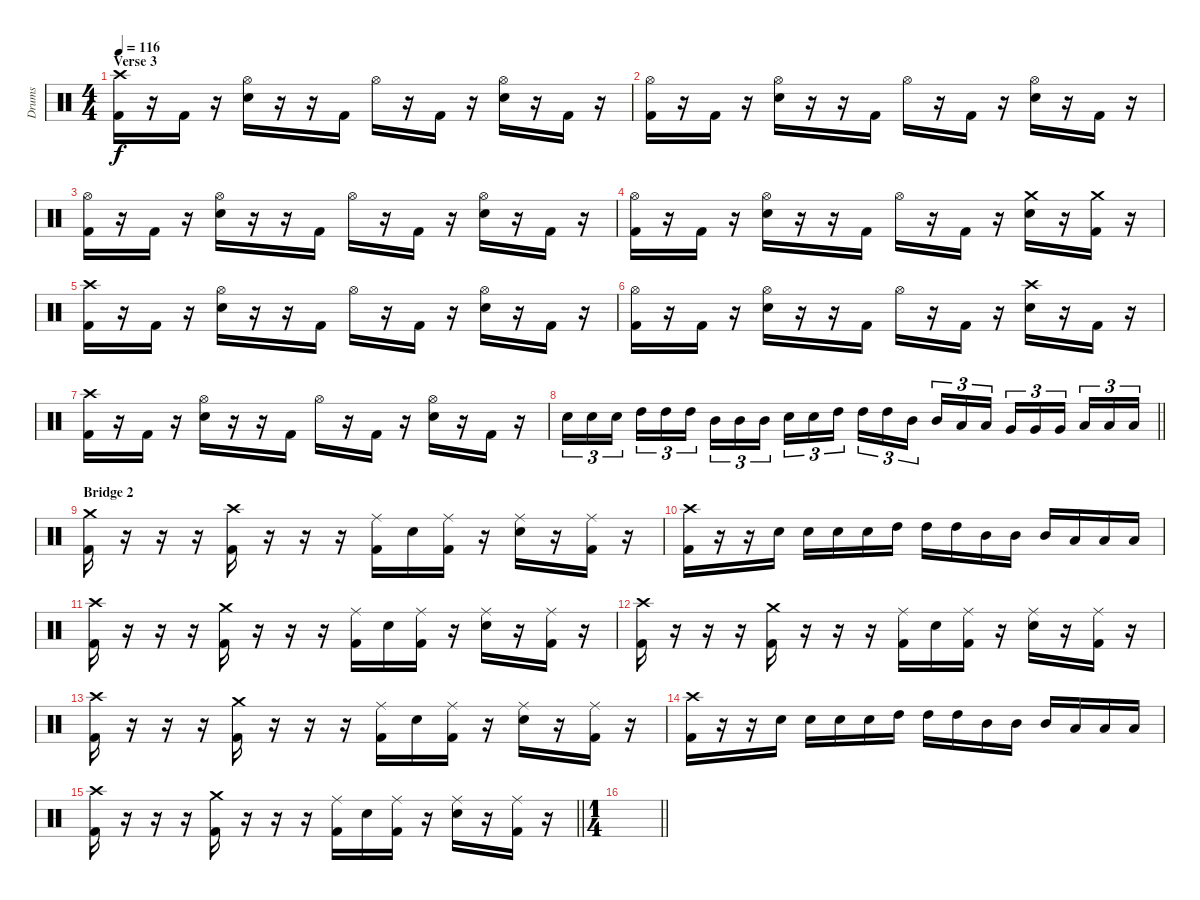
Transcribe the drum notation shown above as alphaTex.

\track ("Drums" "Drums") {instrument percussion}
\staff {score}
\articulation defaults
\ts (4 4)
\section ("" "Verse 3")
\tempo 116
\clef neutral
\ks c
("Crash high (hit)" "Kick (hit) 2").16{dy f} r.16 "Kick (hit) 2".16 r.16 ("Hi-Hat (open)" "Snare (hit) 2").16 r.16 r.16 "Kick (hit) 2".16 "Hi-Hat (open)".16 r.16 "Kick (hit) 2".16 r.16 ("Hi-Hat (open)" "Snare (hit) 2").16 r.16 "Kick (hit) 2".16 r.16 |
("Hi-Hat (open)" "Kick (hit) 2").16 r.16 "Kick (hit) 2".16 r.16 ("Hi-Hat (open)" "Snare (hit) 2").16 r.16 r.16 "Kick (hit) 2".16 "Hi-Hat (open)".16 r.16 "Kick (hit) 2".16 r.16 ("Hi-Hat (open)" "Snare (hit) 2").16 r.16 "Kick (hit) 2".16 r.16 |
("Hi-Hat (open)" "Kick (hit) 2").16 r.16 "Kick (hit) 2".16 r.16 ("Hi-Hat (open)" "Snare (hit) 2").16 r.16 r.16 "Kick (hit) 2".16 "Hi-Hat (open)".16 r.16 "Kick (hit) 2".16 r.16 ("Hi-Hat (open)" "Snare (hit) 2").16 r.16 "Kick (hit) 2".16 r.16 |
("Hi-Hat (open)" "Kick (hit) 2").16 r.16 "Kick (hit) 2".16 r.16 ("Hi-Hat (open)" "Snare (hit) 2").16 r.16 r.16 "Kick (hit) 2".16 "Hi-Hat (open)".16 r.16 "Kick (hit) 2".16 r.16 ("Crash medium (hit)" "Snare (hit) 2").16 r.16 ("Crash medium (hit)" "Kick (hit) 2").16 r.16 |
("Crash high (hit)" "Kick (hit) 2").16 r.16 "Kick (hit) 2".16 r.16 ("Hi-Hat (open)" "Snare (hit) 2").16 r.16 r.16 "Kick (hit) 2".16 "Hi-Hat (open)".16 r.16 "Kick (hit) 2".16 r.16 ("Hi-Hat (open)" "Snare (hit) 2").16 r.16 "Kick (hit) 2".16 r.16 |
("Hi-Hat (open)" "Kick (hit) 2").16 r.16 "Kick (hit) 2".16 r.16 ("Hi-Hat (open)" "Snare (hit) 2").16 r.16 r.16 "Kick (hit) 2".16 "Hi-Hat (open)".16 r.16 "Kick (hit) 2".16 r.16 ("Crash high (hit)" "Snare (hit) 2").16 r.16 "Kick (hit) 2".16 r.16 |
("Crash high (hit)" "Kick (hit) 2").16 r.16 "Kick (hit) 2".16 r.16 ("Hi-Hat (open)" "Snare (hit) 2").16 r.16 r.16 "Kick (hit) 2".16 "Hi-Hat (open)".16 r.16 "Kick (hit) 2".16 r.16 ("Hi-Hat (open)" "Snare (hit) 2").16 r.16 "Kick (hit) 2".16 r.16 |
\barLineRight lightlight "Snare (hit) 2".16{tu (3 2)} "Snare (hit) 2".16{tu (3 2)} "Snare (hit) 2".16{tu (3 2) beam splitsecondary} "High Tom (hit)".16{tu (3 2)} "High Tom (hit)".16{tu (3 2)} "High Tom (hit)".16{tu (3 2)} "Mid Tom (hit)".16{tu (3 2)} "Mid Tom (hit)".16{tu (3 2)} "Mid Tom (hit)".16{tu (3 2) beam splitsecondary} "Snare (hit) 2".16{tu (3 2)} "Snare (hit) 2".16{tu (3 2)} "High Tom (hit)".16{tu (3 2)} "High Tom (hit)".16{tu (3 2)} "High Tom (hit)".16{tu (3 2)} "Mid Tom (hit)".16{tu (3 2) beam splitsecondary} "Mid Tom (hit)".16{tu (3 2)} "Low Tom (hit)".16{tu (3 2)} "Low Tom (hit)".16{tu (3 2)} "Very Low Tom (hit)".16{tu (3 2)} "Very Low Tom (hit)".16{tu (3 2)} "Very Low Tom (hit)".16{tu (3 2) beam splitsecondary} "Low Floor Tom (hit)".16{tu (3 2)} "Low Floor Tom (hit)".16{tu (3 2)} "Low Floor Tom (hit)".16{tu (3 2)}
|
\section ("" "Bridge 2")
("Crash medium (hit)" "Kick (hit) 2").16 r.16 r.16 r.16 ("Crash high (hit)" "Kick (hit) 2").16 r.16 r.16 r.16 ("Ride (middle)" "Kick (hit) 2").16 "Snare (hit) 2".16 ("Ride (middle)" "Kick (hit) 2").16 r.16 ("Ride (middle)" "Snare (hit) 2").16 r.16 ("Ride (middle)" "Kick (hit) 2").16 r.16 |
("Crash high (hit)" "Kick (hit) 2").16 r.16 r.16 "Snare (hit) 2".16 "Snare (hit) 2".16 "Snare (hit) 2".16 "Snare (hit) 2".16 "High Tom (hit)".16 "High Tom (hit)".16 "High Tom (hit)".16 "Mid Tom (hit)".16 "Mid Tom (hit)".16 "Mid Tom (hit)".16 "Low Tom (hit)".16 "Low Tom (hit)".16 "Low Tom (hit)".16 |
("Crash high (hit)" "Kick (hit) 2").16 r.16 r.16 r.16 ("Crash medium (hit)" "Kick (hit) 2").16 r.16 r.16 r.16 ("Ride (middle)" "Kick (hit) 2").16 "Snare (hit) 2".16 ("Ride (middle)" "Kick (hit) 2").16 r.16 ("Ride (middle)" "Snare (hit) 2").16 r.16 ("Ride (middle)" "Kick (hit) 2").16 r.16 |
("Crash high (hit)" "Kick (hit) 2").16 r.16 r.16 r.16 ("Crash medium (hit)" "Kick (hit) 2").16 r.16 r.16 r.16 ("Ride (middle)" "Kick (hit) 2").16 "Snare (hit) 2".16 ("Ride (middle)" "Kick (hit) 2").16 r.16 ("Ride (middle)" "Snare (hit) 2").16 r.16 ("Ride (middle)" "Kick (hit) 2").16 r.16 |
("Crash high (hit)" "Kick (hit) 2").16 r.16 r.16 r.16 ("Crash medium (hit)" "Kick (hit) 2").16 r.16 r.16 r.16 ("Ride (middle)" "Kick (hit) 2").16 "Snare (hit) 2".16 ("Ride (middle)" "Kick (hit) 2").16 r.16 ("Ride (middle)" "Snare (hit) 2").16 r.16 ("Ride (middle)" "Kick (hit) 2").16 r.16 |
("Crash high (hit)" "Kick (hit) 2").16 r.16 r.16 "Snare (hit) 2".16 "Snare (hit) 2".16 "Snare (hit) 2".16 "Snare (hit) 2".16 "High Tom (hit)".16 "High Tom (hit)".16 "High Tom (hit)".16 "Mid Tom (hit)".16 "Mid Tom (hit)".16 "Mid Tom (hit)".16 "Low Tom (hit)".16 "Low Tom (hit)".16 "Low Tom (hit)".16 |
\barLineRight lightlight
("Crash high (hit)" "Kick (hit) 2").16 r.16 r.16 r.16 ("Crash medium (hit)" "Kick (hit) 2").16 r.16 r.16 r.16 ("Ride (middle)" "Kick (hit) 2").16 "Snare (hit) 2".16 ("Ride (middle)" "Kick (hit) 2").16 r.16 ("Ride (middle)" "Snare (hit) 2").16 r.16 ("Ride (middle)" "Kick (hit) 2").16 r.16 |
\ts (1 4)
\barLineRight lightlight
